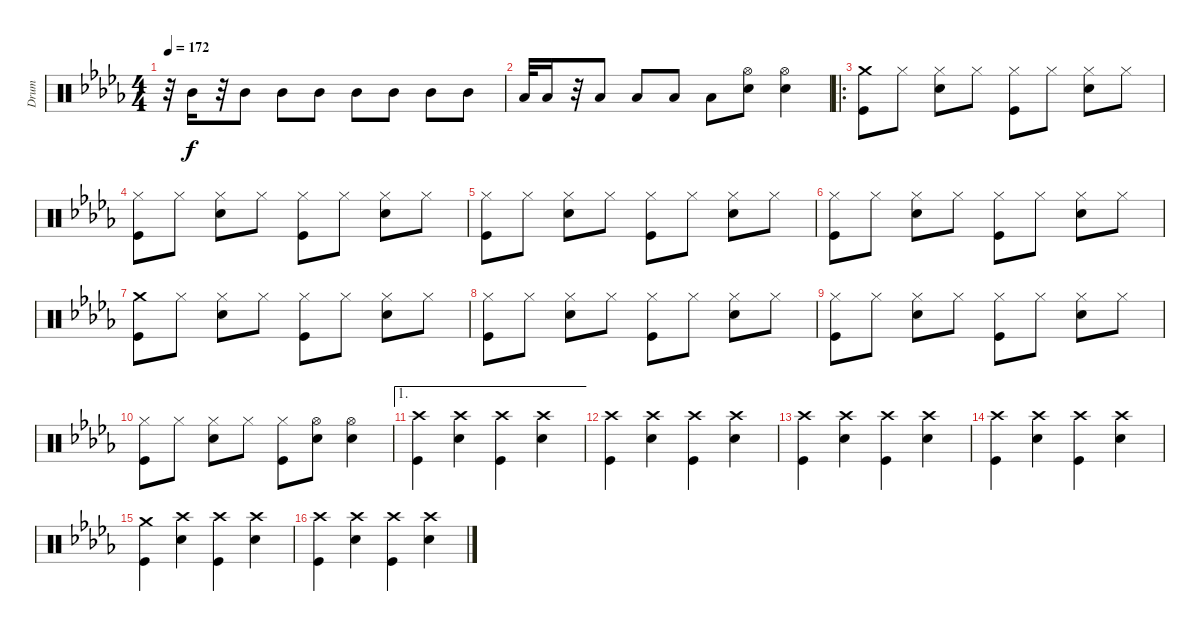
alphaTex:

\track ("Drum" "Drum") {instrument percussion}
\staff {score}
\articulation defaults
\ts (4 4)
\tempo 172
\clef neutral
\ks db
r.32{dy f} "Mid Tom (hit)".16 r.32 "Mid Tom (hit)".8 "Mid Tom (hit)".8 "Mid Tom (hit)".8 "Mid Tom (hit)".8 "Mid Tom (hit)".8 "Mid Tom (hit)".8 "Mid Tom (hit)".8 |
"Low Tom (hit)".32 "Low Tom (hit)".16 r.32 "Low Tom (hit)".8 "Low Tom (hit)".8 "Low Tom (hit)".8 "Low Tom (hit)".8 ("Hi-Hat (open)" "Snare (hit) 2").8 ("Hi-Hat (open)" "Snare (hit) 2").4 |
\ro
("Crash medium (hit)" "Kick (hit)").8 "Hi-Hat (closed)".8 ("Hi-Hat (closed)" "Snare (hit) 2").8 "Hi-Hat (closed)".8 ("Hi-Hat (closed)" "Kick (hit)").8 "Hi-Hat (closed)".8 ("Hi-Hat (closed)" "Snare (hit) 2").8 "Hi-Hat (closed)".8 |
("Hi-Hat (closed)" "Kick (hit)").8 "Hi-Hat (closed)".8 ("Hi-Hat (closed)" "Snare (hit) 2").8 "Hi-Hat (closed)".8 ("Hi-Hat (closed)" "Kick (hit)").8 "Hi-Hat (closed)".8 ("Hi-Hat (closed)" "Snare (hit) 2").8 "Hi-Hat (closed)".8 |
("Hi-Hat (closed)" "Kick (hit)").8 "Hi-Hat (closed)".8 ("Hi-Hat (closed)" "Snare (hit) 2").8 "Hi-Hat (closed)".8 ("Hi-Hat (closed)" "Kick (hit)").8 "Hi-Hat (closed)".8 ("Hi-Hat (closed)" "Snare (hit) 2").8 "Hi-Hat (closed)".8 |
("Hi-Hat (closed)" "Kick (hit)").8 "Hi-Hat (closed)".8 ("Hi-Hat (closed)" "Snare (hit) 2").8 "Hi-Hat (closed)".8 ("Hi-Hat (closed)" "Kick (hit)").8 "Hi-Hat (closed)".8 ("Hi-Hat (closed)" "Snare (hit) 2").8 "Hi-Hat (closed)".8 |
("Crash medium (hit)" "Kick (hit)").8 "Hi-Hat (closed)".8 ("Hi-Hat (closed)" "Snare (hit) 2").8 "Hi-Hat (closed)".8 ("Hi-Hat (closed)" "Kick (hit)").8 "Hi-Hat (closed)".8 ("Hi-Hat (closed)" "Snare (hit) 2").8 "Hi-Hat (closed)".8 |
("Hi-Hat (closed)" "Kick (hit)").8 "Hi-Hat (closed)".8 ("Hi-Hat (closed)" "Snare (hit) 2").8 "Hi-Hat (closed)".8 ("Hi-Hat (closed)" "Kick (hit)").8 "Hi-Hat (closed)".8 ("Hi-Hat (closed)" "Snare (hit) 2").8 "Hi-Hat (closed)".8 |
("Hi-Hat (closed)" "Kick (hit)").8 "Hi-Hat (closed)".8 ("Hi-Hat (closed)" "Snare (hit) 2").8 "Hi-Hat (closed)".8 ("Hi-Hat (closed)" "Kick (hit)").8 "Hi-Hat (closed)".8 ("Hi-Hat (closed)" "Snare (hit) 2").8 "Hi-Hat (closed)".8 |
("Hi-Hat (closed)" "Kick (hit)").8 "Hi-Hat (closed)".8 ("Hi-Hat (closed)" "Snare (hit) 2").8 "Hi-Hat (closed)".8 ("Hi-Hat (closed)" "Kick (hit)").8 ("Hi-Hat (open)" "Snare (hit) 2").8 ("Hi-Hat (open)" "Snare (hit) 2").4 |
\ae 1
("Crash high (hit)" "Kick (hit)").4 ("Crash high (hit)" "Snare (hit) 2").4 ("Crash high (hit)" "Kick (hit)").4 ("Crash high (hit)" "Snare (hit) 2").4 |
("Crash high (hit)" "Kick (hit)").4 ("Crash high (hit)" "Snare (hit) 2").4 ("Crash high (hit)" "Kick (hit)").4 ("Crash high (hit)" "Snare (hit) 2").4 |
("Crash high (hit)" "Kick (hit)").4 ("Crash high (hit)" "Snare (hit) 2").4 ("Crash high (hit)" "Kick (hit)").4 ("Crash high (hit)" "Snare (hit) 2").4 |
("Crash high (hit)" "Kick (hit)").4 ("Crash high (hit)" "Snare (hit) 2").4 ("Crash high (hit)" "Kick (hit)").4 ("Crash high (hit)" "Snare (hit) 2").4 |
("Crash medium (hit)" "Kick (hit)").4 ("Crash high (hit)" "Snare (hit) 2").4 ("Crash high (hit)" "Kick (hit)").4 ("Crash high (hit)" "Snare (hit) 2").4 |
("Crash high (hit)" "Kick (hit)").4 ("Crash high (hit)" "Snare (hit) 2").4 ("Crash high (hit)" "Kick (hit)").4 ("Crash high (hit)" "Snare (hit) 2").4
